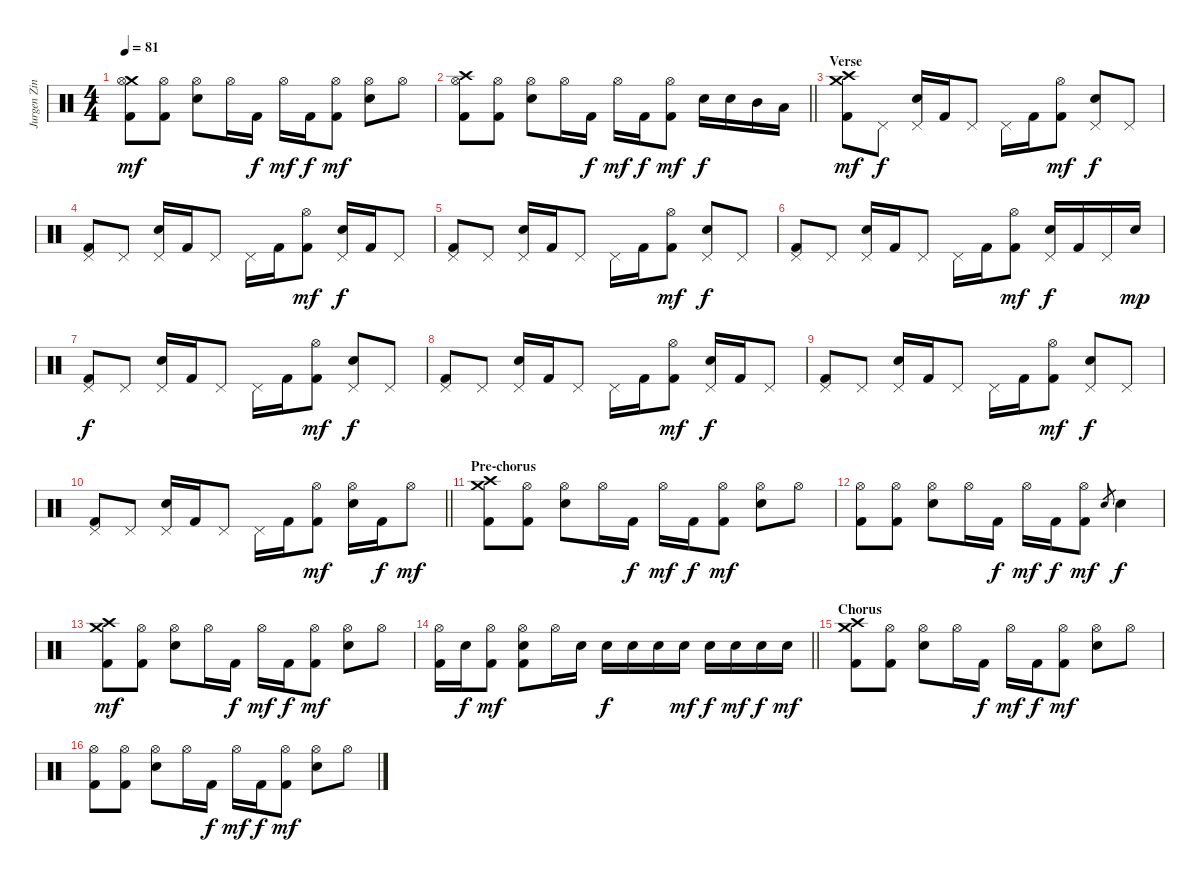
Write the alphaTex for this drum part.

\track ("Jurgen Zing" "Jurgen Zin") {instrument percussion}
\staff {score}
\articulation defaults
\ts (4 4)
\tempo 81
\clef neutral
\ks c
("Crash medium (hit)" "Hi-Hat (open)" "Kick (hit) 2").8{dy mf} ("Hi-Hat (open)" "Kick (hit) 2").8 ("Hi-Hat (open)" "Electric Snare (hit)").8 "Hi-Hat (open)".16 "Kick (hit) 2".16{dy f} "Hi-Hat (open)".16{dy mf} "Kick (hit) 2".16{dy f} ("Hi-Hat (open)" "Kick (hit) 2").8{dy mf} ("Hi-Hat (open)" "Electric Snare (hit)").8 "Hi-Hat (open)".8 |
\barLineRight lightlight
("Crash high (hit)" "Hi-Hat (open)" "Kick (hit) 2").8 ("Hi-Hat (open)" "Kick (hit) 2").8 ("Hi-Hat (open)" "Electric Snare (hit)").8 "Hi-Hat (open)".16 "Kick (hit) 2".16{dy f} "Hi-Hat (open)".16{dy mf} "Kick (hit) 2".16{dy f} ("Hi-Hat (open)" "Kick (hit) 2").8{dy mf} "Electric Snare (hit)".16{dy f} "Electric Snare (hit)".16 "Mid Tom (hit)".16 "Low Tom (hit)".16 |
\section ("" "Verse")
("Crash medium (hit)" "Crash high (hit)" "Kick (hit) 2").8{dy mf} "Pedal Hi-Hat (hit)".8{dy f} ("Pedal Hi-Hat (hit)" "Electric Snare (hit)").16 "Kick (hit) 2".16 "Pedal Hi-Hat (hit)".8 "Pedal Hi-Hat (hit)".16 "Kick (hit) 2".16 ("Hi-Hat (open)" "Kick (hit) 2").8{dy mf} ("Pedal Hi-Hat (hit)" "Electric Snare (hit)").8{dy f} "Pedal Hi-Hat (hit)".8 |
("Pedal Hi-Hat (hit)" "Kick (hit) 2").8 "Pedal Hi-Hat (hit)".8 ("Pedal Hi-Hat (hit)" "Electric Snare (hit)").16 "Kick (hit) 2".16 "Pedal Hi-Hat (hit)".8 "Pedal Hi-Hat (hit)".16 "Kick (hit) 2".16 ("Hi-Hat (open)" "Kick (hit) 2").8{dy mf} ("Pedal Hi-Hat (hit)" "Electric Snare (hit)").16{dy f} "Kick (hit) 2".16 "Pedal Hi-Hat (hit)".8 |
("Pedal Hi-Hat (hit)" "Kick (hit) 2").8 "Pedal Hi-Hat (hit)".8 ("Pedal Hi-Hat (hit)" "Electric Snare (hit)").16 "Kick (hit) 2".16 "Pedal Hi-Hat (hit)".8 "Pedal Hi-Hat (hit)".16 "Kick (hit) 2".16 ("Hi-Hat (open)" "Kick (hit) 2").8{dy mf} ("Pedal Hi-Hat (hit)" "Electric Snare (hit)").8{dy f} "Pedal Hi-Hat (hit)".8 |
("Pedal Hi-Hat (hit)" "Kick (hit) 2").8 "Pedal Hi-Hat (hit)".8 ("Pedal Hi-Hat (hit)" "Electric Snare (hit)").16 "Kick (hit) 2".16 "Pedal Hi-Hat (hit)".8 "Pedal Hi-Hat (hit)".16 "Kick (hit) 2".16 ("Hi-Hat (open)" "Kick (hit) 2").8{dy mf} ("Pedal Hi-Hat (hit)" "Electric Snare (hit)").16{dy f} "Kick (hit) 2".16 "Pedal Hi-Hat (hit)".16 "Electric Snare (hit)".16{dy mp} |
("Pedal Hi-Hat (hit)" "Kick (hit) 2").8{dy f} "Pedal Hi-Hat (hit)".8 ("Pedal Hi-Hat (hit)" "Electric Snare (hit)").16 "Kick (hit) 2".16 "Pedal Hi-Hat (hit)".8 "Pedal Hi-Hat (hit)".16 "Kick (hit) 2".16 ("Hi-Hat (open)" "Kick (hit) 2").8{dy mf} ("Pedal Hi-Hat (hit)" "Electric Snare (hit)").8{dy f} "Pedal Hi-Hat (hit)".8 |
("Pedal Hi-Hat (hit)" "Kick (hit) 2").8 "Pedal Hi-Hat (hit)".8 ("Pedal Hi-Hat (hit)" "Electric Snare (hit)").16 "Kick (hit) 2".16 "Pedal Hi-Hat (hit)".8 "Pedal Hi-Hat (hit)".16 "Kick (hit) 2".16 ("Hi-Hat (open)" "Kick (hit) 2").8{dy mf} ("Pedal Hi-Hat (hit)" "Electric Snare (hit)").16{dy f} "Kick (hit) 2".16 "Pedal Hi-Hat (hit)".8 |
("Pedal Hi-Hat (hit)" "Kick (hit) 2").8 "Pedal Hi-Hat (hit)".8 ("Pedal Hi-Hat (hit)" "Electric Snare (hit)").16 "Kick (hit) 2".16 "Pedal Hi-Hat (hit)".8 "Pedal Hi-Hat (hit)".16 "Kick (hit) 2".16 ("Hi-Hat (open)" "Kick (hit) 2").8{dy mf} ("Pedal Hi-Hat (hit)" "Electric Snare (hit)").8{dy f} "Pedal Hi-Hat (hit)".8 |
\barLineRight lightlight
("Pedal Hi-Hat (hit)" "Kick (hit) 2").8 "Pedal Hi-Hat (hit)".8 ("Pedal Hi-Hat (hit)" "Electric Snare (hit)").16 "Kick (hit) 2".16 "Pedal Hi-Hat (hit)".8 "Pedal Hi-Hat (hit)".16 "Kick (hit) 2".16 ("Hi-Hat (open)" "Kick (hit) 2").8{dy mf} ("Hi-Hat (open)" "Electric Snare (hit)").16 "Kick (hit) 2".16{dy f} "Hi-Hat (open)".8{dy mf} |
\section ("" "Pre-chorus")
("Crash medium (hit)" "Crash high (hit)" "Kick (hit) 2").8 ("Hi-Hat (open)" "Kick (hit) 2").8 ("Hi-Hat (open)" "Electric Snare (hit)").8 "Hi-Hat (open)".16 "Kick (hit) 2".16{dy f} "Hi-Hat (open)".16{dy mf} "Kick (hit) 2".16{dy f} ("Hi-Hat (open)" "Kick (hit) 2").8{dy mf} ("Hi-Hat (open)" "Electric Snare (hit)").8 "Hi-Hat (open)".8 |
("Hi-Hat (open)" "Kick (hit) 2").8 ("Hi-Hat (open)" "Kick (hit) 2").8 ("Hi-Hat (open)" "Electric Snare (hit)").8 "Hi-Hat (open)".16 "Kick (hit) 2".16{dy f} "Hi-Hat (open)".16{dy mf} "Kick (hit) 2".16{dy f} ("Hi-Hat (open)" "Kick (hit) 2").8{dy mf} "Electric Snare (hit)".8{gr} "Electric Snare (hit)".4{dy f} |
("Crash medium (hit)" "Crash high (hit)" "Kick (hit) 2").8{dy mf} ("Hi-Hat (open)" "Kick (hit) 2").8 ("Hi-Hat (open)" "Electric Snare (hit)").8 "Hi-Hat (open)".16 "Kick (hit) 2".16{dy f} "Hi-Hat (open)".16{dy mf} "Kick (hit) 2".16{dy f} ("Hi-Hat (open)" "Kick (hit) 2").8{dy mf} ("Hi-Hat (open)" "Electric Snare (hit)").8 "Hi-Hat (open)".8 |
\barLineRight lightlight
("Hi-Hat (open)" "Kick (hit) 2").16 "Electric Snare (hit)".16{dy f} ("Hi-Hat (open)" "Kick (hit) 2").8{dy mf} ("Hi-Hat (open)" "Electric Snare (hit)" "Kick (hit) 2").8 "Hi-Hat (open)".16 "Electric Snare (hit)".16 "Electric Snare (hit)".16{dy f} "Electric Snare (hit)".16 "Electric Snare (hit)".16 "Electric Snare (hit)".16{dy mf} "Electric Snare (hit)".16{dy f} "Electric Snare (hit)".16{dy mf} "Electric Snare (hit)".16{dy f} "Electric Snare (hit)".16{dy mf} |
\section ("" "Chorus")
("Crash medium (hit)" "Crash high (hit)" "Kick (hit) 2").8 ("Hi-Hat (open)" "Kick (hit) 2").8 ("Hi-Hat (open)" "Electric Snare (hit)").8 "Hi-Hat (open)".16 "Kick (hit) 2".16{dy f} "Hi-Hat (open)".16{dy mf} "Kick (hit) 2".16{dy f} ("Hi-Hat (open)" "Kick (hit) 2").8{dy mf} ("Hi-Hat (open)" "Electric Snare (hit)").8 "Hi-Hat (open)".8 |
("Hi-Hat (open)" "Kick (hit) 2").8 ("Hi-Hat (open)" "Kick (hit) 2").8 ("Hi-Hat (open)" "Electric Snare (hit)").8 "Hi-Hat (open)".16 "Kick (hit) 2".16{dy f} "Hi-Hat (open)".16{dy mf} "Kick (hit) 2".16{dy f} ("Hi-Hat (open)" "Kick (hit) 2").8{dy mf} ("Hi-Hat (open)" "Electric Snare (hit)").8 "Hi-Hat (open)".8
